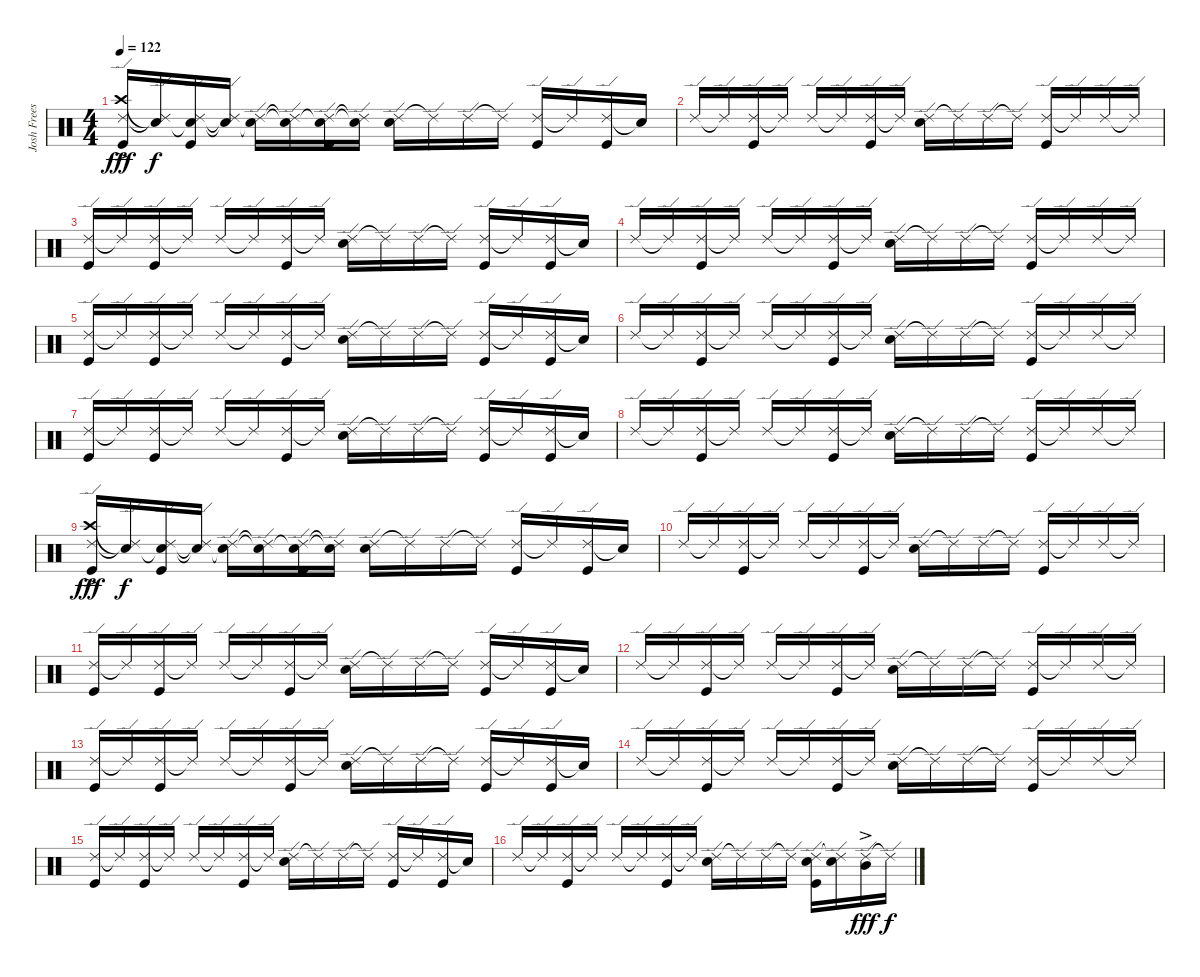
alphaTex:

\track ("Josh Freese" "Josh Frees") {instrument percussion}
\staff {score}
\articulation defaults
\ts (4 4)
\tempo 122
\clef neutral
\ks c
("Ride (edge) 2" "Crash high (hit)"{ac} "Kick (hit)").16{dy fff} ("Ride (edge) 2"{t} "Snare (hit)"{t}).16{dy f} ("Ride (edge) 2" "Snare (hit)"{t} "Kick (hit)").16 ("Ride (edge) 2"{t} "Snare (hit)"{t}).16 ("Ride (edge) 2" "Snare (hit)"{t}).16 ("Ride (edge) 2"{t} "Snare (hit)"{t}).16 ("Ride (edge) 2" "Snare (hit)"{t} "Kick (hit)").16 ("Ride (edge) 2"{t} "Snare (hit)"{t}).16 ("Ride (edge) 2" "Electric Snare (hit)").16 "Ride (edge) 2"{t}.16 "Ride (edge) 2".16 "Ride (edge) 2"{t}.16 ("Ride (edge) 2" "Kick (hit)").16 "Ride (edge) 2"{t}.16 ("Ride (edge) 2" "Kick (hit)").16 "Snare (hit)"{t}.16 |
"Ride (edge) 2".16 "Ride (edge) 2"{t}.16 ("Ride (edge) 2" "Kick (hit)").16 "Ride (edge) 2"{t}.16 "Ride (edge) 2".16 "Ride (edge) 2"{t}.16 ("Ride (edge) 2" "Kick (hit)").16 "Ride (edge) 2"{t}.16 ("Ride (edge) 2" "Electric Snare (hit)").16 "Ride (edge) 2"{t}.16 "Ride (edge) 2".16 "Ride (edge) 2"{t}.16 ("Ride (edge) 2" "Kick (hit)").16 "Ride (edge) 2"{t}.16 "Ride (edge) 2".16 "Ride (edge) 2"{t}.16 |
("Ride (edge) 2" "Kick (hit)").16{balance 8} "Ride (edge) 2"{t}.16 ("Ride (edge) 2" "Kick (hit)").16 "Ride (edge) 2"{t}.16 "Ride (edge) 2".16 "Ride (edge) 2"{t}.16 ("Ride (edge) 2" "Kick (hit)").16 "Ride (edge) 2"{t}.16 ("Ride (edge) 2" "Electric Snare (hit)").16 "Ride (edge) 2"{t}.16 "Ride (edge) 2".16 "Ride (edge) 2"{t}.16 ("Ride (edge) 2" "Kick (hit)").16 "Ride (edge) 2"{t}.16 ("Ride (edge) 2" "Kick (hit)").16 "Snare (hit)"{t}.16 |
"Ride (edge) 2".16 "Ride (edge) 2"{t}.16 ("Ride (edge) 2" "Kick (hit)").16 "Ride (edge) 2"{t}.16 "Ride (edge) 2".16 "Ride (edge) 2"{t}.16 ("Ride (edge) 2" "Kick (hit)").16 "Ride (edge) 2"{t}.16 ("Ride (edge) 2" "Electric Snare (hit)").16 "Ride (edge) 2"{t}.16 "Ride (edge) 2".16 "Ride (edge) 2"{t}.16 ("Ride (edge) 2" "Kick (hit)").16 "Ride (edge) 2"{t}.16 "Ride (edge) 2".16 "Ride (edge) 2"{t}.16 |
("Ride (edge) 2" "Kick (hit)").16{balance 8} "Ride (edge) 2"{t}.16 ("Ride (edge) 2" "Kick (hit)").16 "Ride (edge) 2"{t}.16 "Ride (edge) 2".16 "Ride (edge) 2"{t}.16 ("Ride (edge) 2" "Kick (hit)").16 "Ride (edge) 2"{t}.16 ("Ride (edge) 2" "Electric Snare (hit)").16 "Ride (edge) 2"{t}.16 "Ride (edge) 2".16 "Ride (edge) 2"{t}.16 ("Ride (edge) 2" "Kick (hit)").16 "Ride (edge) 2"{t}.16 ("Ride (edge) 2" "Kick (hit)").16 "Snare (hit)"{t}.16 |
"Ride (edge) 2".16 "Ride (edge) 2"{t}.16 ("Ride (edge) 2" "Kick (hit)").16 "Ride (edge) 2"{t}.16 "Ride (edge) 2".16 "Ride (edge) 2"{t}.16 ("Ride (edge) 2" "Kick (hit)").16 "Ride (edge) 2"{t}.16 ("Ride (edge) 2" "Electric Snare (hit)").16 "Ride (edge) 2"{t}.16 "Ride (edge) 2".16 "Ride (edge) 2"{t}.16 ("Ride (edge) 2" "Kick (hit)").16 "Ride (edge) 2"{t}.16 "Ride (edge) 2".16 "Ride (edge) 2"{t}.16 |
("Ride (edge) 2" "Kick (hit)").16{balance 8} "Ride (edge) 2"{t}.16 ("Ride (edge) 2" "Kick (hit)").16 "Ride (edge) 2"{t}.16 "Ride (edge) 2".16 "Ride (edge) 2"{t}.16 ("Ride (edge) 2" "Kick (hit)").16 "Ride (edge) 2"{t}.16 ("Ride (edge) 2" "Electric Snare (hit)").16 "Ride (edge) 2"{t}.16 "Ride (edge) 2".16 "Ride (edge) 2"{t}.16 ("Ride (edge) 2" "Kick (hit)").16 "Ride (edge) 2"{t}.16 ("Ride (edge) 2" "Kick (hit)").16 "Snare (hit)"{t}.16 |
"Ride (edge) 2".16 "Ride (edge) 2"{t}.16 ("Ride (edge) 2" "Kick (hit)").16 "Ride (edge) 2"{t}.16 "Ride (edge) 2".16 "Ride (edge) 2"{t}.16 ("Ride (edge) 2" "Kick (hit)").16 "Ride (edge) 2"{t}.16 ("Ride (edge) 2" "Electric Snare (hit)").16 "Ride (edge) 2"{t}.16 "Ride (edge) 2".16 "Ride (edge) 2"{t}.16 ("Ride (edge) 2" "Kick (hit)").16 "Ride (edge) 2"{t}.16 "Ride (edge) 2".16 "Ride (edge) 2"{t}.16 |
("Ride (edge) 2" "Crash high (hit)"{ac} "Kick (hit)").16{dy fff balance 8} ("Ride (edge) 2"{t} "Snare (hit)"{t}).16{dy f} ("Ride (edge) 2" "Snare (hit)"{t} "Kick (hit)").16 ("Ride (edge) 2"{t} "Snare (hit)"{t}).16 ("Ride (edge) 2" "Snare (hit)"{t}).16 ("Ride (edge) 2"{t} "Snare (hit)"{t}).16 ("Ride (edge) 2" "Snare (hit)"{t} "Kick (hit)").16 ("Ride (edge) 2"{t} "Snare (hit)"{t}).16 ("Ride (edge) 2" "Electric Snare (hit)").16 "Ride (edge) 2"{t}.16 "Ride (edge) 2".16 "Ride (edge) 2"{t}.16 ("Ride (edge) 2" "Kick (hit)").16 "Ride (edge) 2"{t}.16 ("Ride (edge) 2" "Kick (hit)").16 "Snare (hit)"{t}.16 |
"Ride (edge) 2".16 "Ride (edge) 2"{t}.16 ("Ride (edge) 2" "Kick (hit)").16 "Ride (edge) 2"{t}.16 "Ride (edge) 2".16 "Ride (edge) 2"{t}.16 ("Ride (edge) 2" "Kick (hit)").16 "Ride (edge) 2"{t}.16 ("Ride (edge) 2" "Electric Snare (hit)").16 "Ride (edge) 2"{t}.16 "Ride (edge) 2".16 "Ride (edge) 2"{t}.16 ("Ride (edge) 2" "Kick (hit)").16 "Ride (edge) 2"{t}.16 "Ride (edge) 2".16 "Ride (edge) 2"{t}.16 |
("Ride (edge) 2" "Kick (hit)").16{balance 8} "Ride (edge) 2"{t}.16 ("Ride (edge) 2" "Kick (hit)").16 "Ride (edge) 2"{t}.16 "Ride (edge) 2".16 "Ride (edge) 2"{t}.16 ("Ride (edge) 2" "Kick (hit)").16 "Ride (edge) 2"{t}.16 ("Ride (edge) 2" "Electric Snare (hit)").16 "Ride (edge) 2"{t}.16 "Ride (edge) 2".16 "Ride (edge) 2"{t}.16 ("Ride (edge) 2" "Kick (hit)").16 "Ride (edge) 2"{t}.16 ("Ride (edge) 2" "Kick (hit)").16 "Snare (hit)"{t}.16 |
"Ride (edge) 2".16 "Ride (edge) 2"{t}.16 ("Ride (edge) 2" "Kick (hit)").16 "Ride (edge) 2"{t}.16 "Ride (edge) 2".16 "Ride (edge) 2"{t}.16 ("Ride (edge) 2" "Kick (hit)").16 "Ride (edge) 2"{t}.16 ("Ride (edge) 2" "Electric Snare (hit)").16 "Ride (edge) 2"{t}.16 "Ride (edge) 2".16 "Ride (edge) 2"{t}.16 ("Ride (edge) 2" "Kick (hit)").16 "Ride (edge) 2"{t}.16 "Ride (edge) 2".16 "Ride (edge) 2"{t}.16 |
("Ride (edge) 2" "Kick (hit)").16{balance 8} "Ride (edge) 2"{t}.16 ("Ride (edge) 2" "Kick (hit)").16 "Ride (edge) 2"{t}.16 "Ride (edge) 2".16 "Ride (edge) 2"{t}.16 ("Ride (edge) 2" "Kick (hit)").16 "Ride (edge) 2"{t}.16 ("Ride (edge) 2" "Electric Snare (hit)").16 "Ride (edge) 2"{t}.16 "Ride (edge) 2".16 "Ride (edge) 2"{t}.16 ("Ride (edge) 2" "Kick (hit)").16 "Ride (edge) 2"{t}.16 ("Ride (edge) 2" "Kick (hit)").16 "Snare (hit)"{t}.16 |
"Ride (edge) 2".16 "Ride (edge) 2"{t}.16 ("Ride (edge) 2" "Kick (hit)").16 "Ride (edge) 2"{t}.16 "Ride (edge) 2".16 "Ride (edge) 2"{t}.16 ("Ride (edge) 2" "Kick (hit)").16 "Ride (edge) 2"{t}.16 ("Ride (edge) 2" "Electric Snare (hit)").16 "Ride (edge) 2"{t}.16 "Ride (edge) 2".16 "Ride (edge) 2"{t}.16 ("Ride (edge) 2" "Kick (hit)").16 "Ride (edge) 2"{t}.16 "Ride (edge) 2".16 "Ride (edge) 2"{t}.16 |
("Ride (edge) 2" "Kick (hit)").16{balance 8} "Ride (edge) 2"{t}.16 ("Ride (edge) 2" "Kick (hit)").16 "Ride (edge) 2"{t}.16 "Ride (edge) 2".16 "Ride (edge) 2"{t}.16 ("Ride (edge) 2" "Kick (hit)").16 "Ride (edge) 2"{t}.16 ("Ride (edge) 2" "Electric Snare (hit)").16 "Ride (edge) 2"{t}.16 "Ride (edge) 2".16 "Ride (edge) 2"{t}.16 ("Ride (edge) 2" "Kick (hit)").16 "Ride (edge) 2"{t}.16 ("Ride (edge) 2" "Kick (hit)").16 "Snare (hit)"{t}.16 |
"Ride (edge) 2".16 "Ride (edge) 2"{t}.16 ("Ride (edge) 2" "Kick (hit)").16 "Ride (edge) 2"{t}.16 "Ride (edge) 2".16 "Ride (edge) 2"{t}.16 ("Ride (edge) 2" "Kick (hit)").16 "Ride (edge) 2"{t}.16 ("Ride (edge) 2" "Electric Snare (hit)").16 "Ride (edge) 2"{t}.16 "Ride (edge) 2".16 "Ride (edge) 2"{t}.16 ("Ride (edge) 2" "Electric Snare (hit)" "Kick (hit)").16 ("Ride (edge) 2"{t} "Electric Snare (hit)").16 ("Ride (edge) 2" "Mid Tom (hit)"{ac}).16{dy fff} "Ride (edge) 2"{t}.16{dy f}
